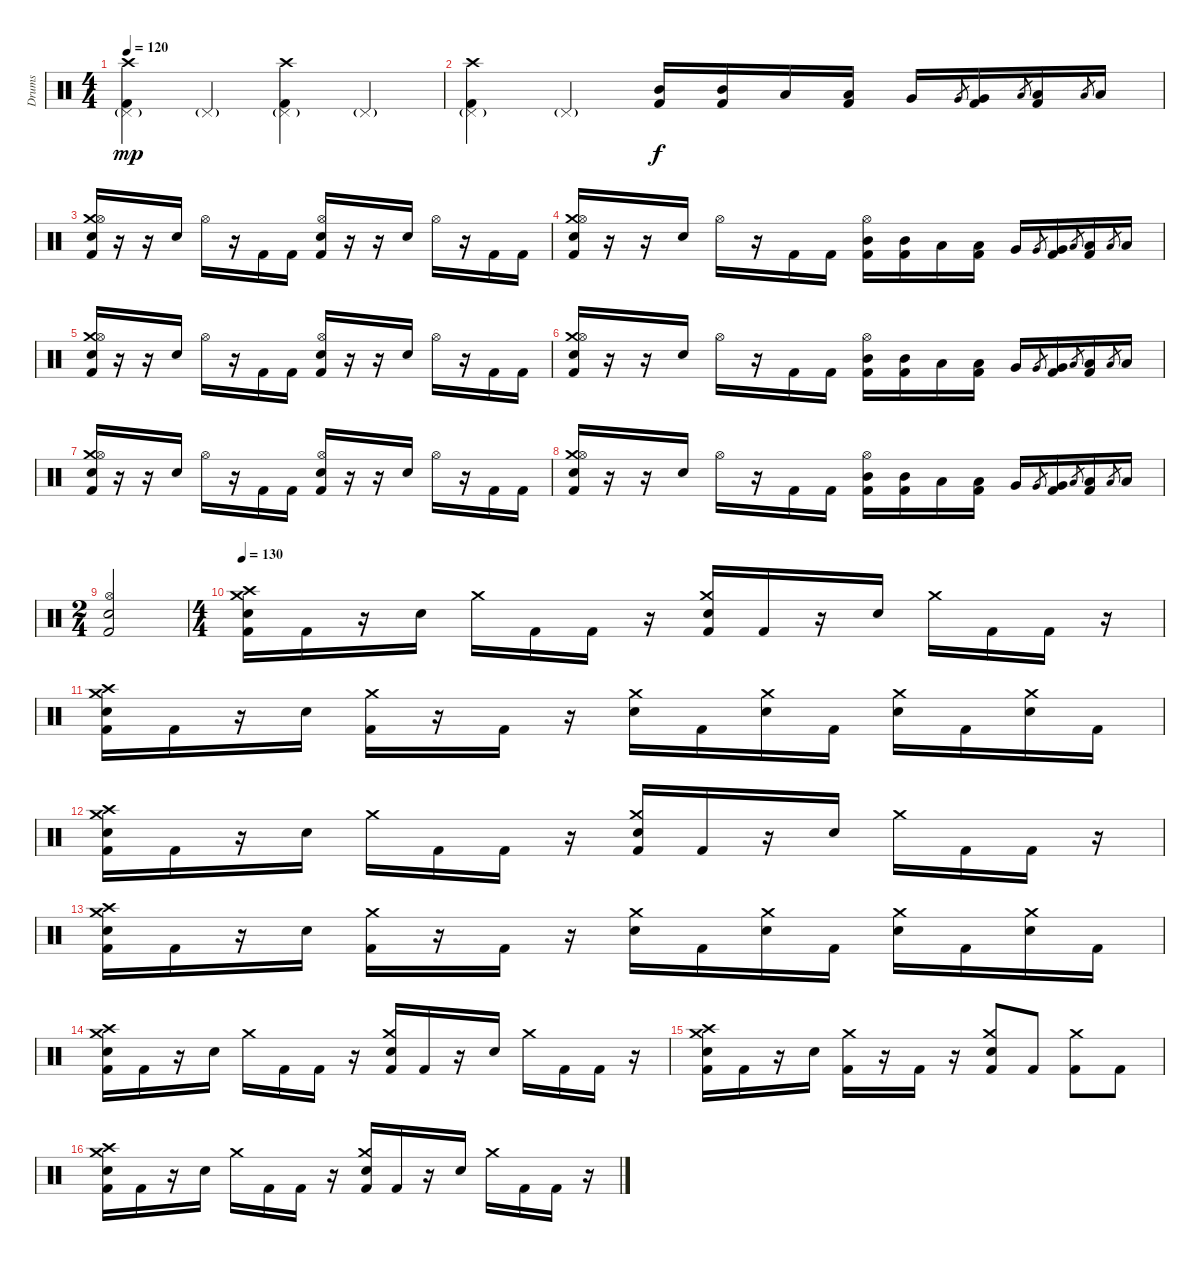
\track ("Drums" "Drums") {instrument percussion}
\staff {score}
\articulation defaults
\ts (4 4)
\tempo 120
\clef neutral
\ks c
("Crash high (hit)" "Pedal Hi-Hat (hit)"{g} "Kick (hit) 2").4{dy mp} "Pedal Hi-Hat (hit)"{g}.4 ("Crash high (hit)" "Pedal Hi-Hat (hit)"{g} "Kick (hit) 2").4 "Pedal Hi-Hat (hit)"{g}.4 |
("Crash high (hit)" "Pedal Hi-Hat (hit)"{g} "Kick (hit) 2").4 "Pedal Hi-Hat (hit)"{g}.4 ("Mid Tom (hit)" "Kick (hit) 2").16{dy f} ("Mid Tom (hit)" "Kick (hit) 2").16 "Low Floor Tom (hit)".16 ("Low Tom (hit)" "Kick (hit) 2").16 "Very Low Tom (hit)".16 "Very Low Tom (hit)".8{gr} ("Very Low Tom (hit)" "Kick (hit) 2").16 "Low Floor Tom (hit)".8{gr} ("Low Floor Tom (hit)" "Kick (hit) 2").16 "Low Floor Tom (hit)".8{gr} "Low Floor Tom (hit)".16 |
("Crash medium (hit)" "Hi-Hat (open)" "Snare (hit) 2" "Kick (hit) 2").16 r.16 r.16 "Snare (hit) 2".16 "Hi-Hat (open)".16 r.16 "Kick (hit) 2".16 "Kick (hit) 2".16 ("Hi-Hat (open)" "Snare (hit) 2" "Kick (hit) 2").16 r.16 r.16 "Snare (hit) 2".16 "Hi-Hat (open)".16 r.16 "Kick (hit) 2".16 "Kick (hit) 2".16 |
("Crash medium (hit)" "Hi-Hat (open)" "Snare (hit) 2" "Kick (hit) 2").16 r.16 r.16 "Snare (hit) 2".16 "Hi-Hat (open)".16 r.16 "Kick (hit) 2".16 "Kick (hit) 2".16 ("Hi-Hat (open)" "Mid Tom (hit)" "Kick (hit) 2").16 ("Mid Tom (hit)" "Kick (hit) 2").16 "Low Floor Tom (hit)".16 ("Low Tom (hit)" "Kick (hit) 2").16 "Very Low Tom (hit)".16 "Very Low Tom (hit)".8{gr} ("Very Low Tom (hit)" "Kick (hit) 2").16 "Low Floor Tom (hit)".8{gr} ("Low Floor Tom (hit)" "Kick (hit) 2").16 "Low Floor Tom (hit)".8{gr} "Low Floor Tom (hit)".16 |
("Crash medium (hit)" "Hi-Hat (open)" "Snare (hit) 2" "Kick (hit) 2").16 r.16 r.16 "Snare (hit) 2".16 "Hi-Hat (open)".16 r.16 "Kick (hit) 2".16 "Kick (hit) 2".16 ("Hi-Hat (open)" "Snare (hit) 2" "Kick (hit) 2").16 r.16 r.16 "Snare (hit) 2".16 "Hi-Hat (open)".16 r.16 "Kick (hit) 2".16 "Kick (hit) 2".16 |
("Crash medium (hit)" "Hi-Hat (open)" "Snare (hit) 2" "Kick (hit) 2").16 r.16 r.16 "Snare (hit) 2".16 "Hi-Hat (open)".16 r.16 "Kick (hit) 2".16 "Kick (hit) 2".16 ("Hi-Hat (open)" "Mid Tom (hit)" "Kick (hit) 2").16 ("Mid Tom (hit)" "Kick (hit) 2").16 "Low Floor Tom (hit)".16 ("Low Tom (hit)" "Kick (hit) 2").16 "Very Low Tom (hit)".16 "Very Low Tom (hit)".8{gr} ("Very Low Tom (hit)" "Kick (hit) 2").16 "Low Floor Tom (hit)".8{gr} ("Low Floor Tom (hit)" "Kick (hit) 2").16 "Low Floor Tom (hit)".8{gr} "Low Floor Tom (hit)".16 |
("Crash medium (hit)" "Hi-Hat (open)" "Snare (hit) 2" "Kick (hit) 2").16 r.16 r.16 "Snare (hit) 2".16 "Hi-Hat (open)".16 r.16 "Kick (hit) 2".16 "Kick (hit) 2".16 ("Hi-Hat (open)" "Snare (hit) 2" "Kick (hit) 2").16 r.16 r.16 "Snare (hit) 2".16 "Hi-Hat (open)".16 r.16 "Kick (hit) 2".16 "Kick (hit) 2".16 |
("Crash medium (hit)" "Hi-Hat (open)" "Snare (hit) 2" "Kick (hit) 2").16 r.16 r.16 "Snare (hit) 2".16 "Hi-Hat (open)".16 r.16 "Kick (hit) 2".16 "Kick (hit) 2".16 ("Hi-Hat (open)" "Mid Tom (hit)" "Kick (hit) 2").16 ("Mid Tom (hit)" "Kick (hit) 2").16 "Low Floor Tom (hit)".16 ("Low Tom (hit)" "Kick (hit) 2").16 "Very Low Tom (hit)".16 "Very Low Tom (hit)".8{gr} ("Very Low Tom (hit)" "Kick (hit) 2").16 "Low Floor Tom (hit)".8{gr} ("Low Floor Tom (hit)" "Kick (hit) 2").16 "Low Floor Tom (hit)".8{gr} "Low Floor Tom (hit)".16 |
\ts (2 4)
("Hi-Hat (open)" "Snare (hit) 2" "Kick (hit) 2").2 |
\ts (4 4)
\tempo 130
("Crash medium (hit)" "Crash high (hit)" "Snare (hit) 2" "Kick (hit) 2").16 "Kick (hit) 2".16 r.16 "Snare (hit) 2".16 "Crash medium (hit)".16 "Kick (hit) 2".16 "Kick (hit) 2".16 r.16 ("Crash medium (hit)" "Snare (hit) 2" "Kick (hit) 2").16 "Kick (hit) 2".16 r.16 "Snare (hit) 2".16 "Crash medium (hit)".16 "Kick (hit) 2".16 "Kick (hit) 2".16 r.16 |
("Crash medium (hit)" "Crash high (hit)" "Snare (hit) 2" "Kick (hit) 2").16 "Kick (hit) 2".16 r.16 "Snare (hit) 2".16 ("Crash medium (hit)" "Kick (hit) 2").16 r.16 "Kick (hit) 2".16 r.16 ("Crash medium (hit)" "Snare (hit) 2").16 "Kick (hit) 2".16 ("Crash medium (hit)" "Snare (hit) 2").16 "Kick (hit) 2".16 ("Crash medium (hit)" "Snare (hit) 2").16 "Kick (hit) 2".16 ("Crash medium (hit)" "Snare (hit) 2").16 "Kick (hit) 2".16 |
("Crash medium (hit)" "Crash high (hit)" "Snare (hit) 2" "Kick (hit) 2").16 "Kick (hit) 2".16 r.16 "Snare (hit) 2".16 "Crash medium (hit)".16 "Kick (hit) 2".16 "Kick (hit) 2".16 r.16 ("Crash medium (hit)" "Snare (hit) 2" "Kick (hit) 2").16 "Kick (hit) 2".16 r.16 "Snare (hit) 2".16 "Crash medium (hit)".16 "Kick (hit) 2".16 "Kick (hit) 2".16 r.16 |
("Crash medium (hit)" "Crash high (hit)" "Snare (hit) 2" "Kick (hit) 2").16 "Kick (hit) 2".16 r.16 "Snare (hit) 2".16 ("Crash medium (hit)" "Kick (hit) 2").16 r.16 "Kick (hit) 2".16 r.16 ("Crash medium (hit)" "Snare (hit) 2").16 "Kick (hit) 2".16 ("Crash medium (hit)" "Snare (hit) 2").16 "Kick (hit) 2".16 ("Crash medium (hit)" "Snare (hit) 2").16 "Kick (hit) 2".16 ("Crash medium (hit)" "Snare (hit) 2").16 "Kick (hit) 2".16 |
("Crash medium (hit)" "Crash high (hit)" "Snare (hit) 2" "Kick (hit) 2").16 "Kick (hit) 2".16 r.16 "Snare (hit) 2".16 "Crash medium (hit)".16 "Kick (hit) 2".16 "Kick (hit) 2".16 r.16 ("Crash medium (hit)" "Snare (hit) 2" "Kick (hit) 2").16 "Kick (hit) 2".16 r.16 "Snare (hit) 2".16 "Crash medium (hit)".16 "Kick (hit) 2".16 "Kick (hit) 2".16 r.16 |
("Crash medium (hit)" "Crash high (hit)" "Snare (hit) 2" "Kick (hit) 2").16 "Kick (hit) 2".16 r.16 "Snare (hit) 2".16 ("Crash medium (hit)" "Kick (hit) 2").16 r.16 "Kick (hit) 2".16 r.16 ("Crash medium (hit)" "Snare (hit) 2" "Kick (hit) 2").8 "Kick (hit) 2".8 ("Crash medium (hit)" "Kick (hit) 2").8 "Kick (hit) 2".8 |
("Crash medium (hit)" "Crash high (hit)" "Snare (hit) 2" "Kick (hit) 2").16 "Kick (hit) 2".16 r.16 "Snare (hit) 2".16 "Crash medium (hit)".16 "Kick (hit) 2".16 "Kick (hit) 2".16 r.16 ("Crash medium (hit)" "Snare (hit) 2" "Kick (hit) 2").16 "Kick (hit) 2".16 r.16 "Snare (hit) 2".16 "Crash medium (hit)".16 "Kick (hit) 2".16 "Kick (hit) 2".16 r.16
